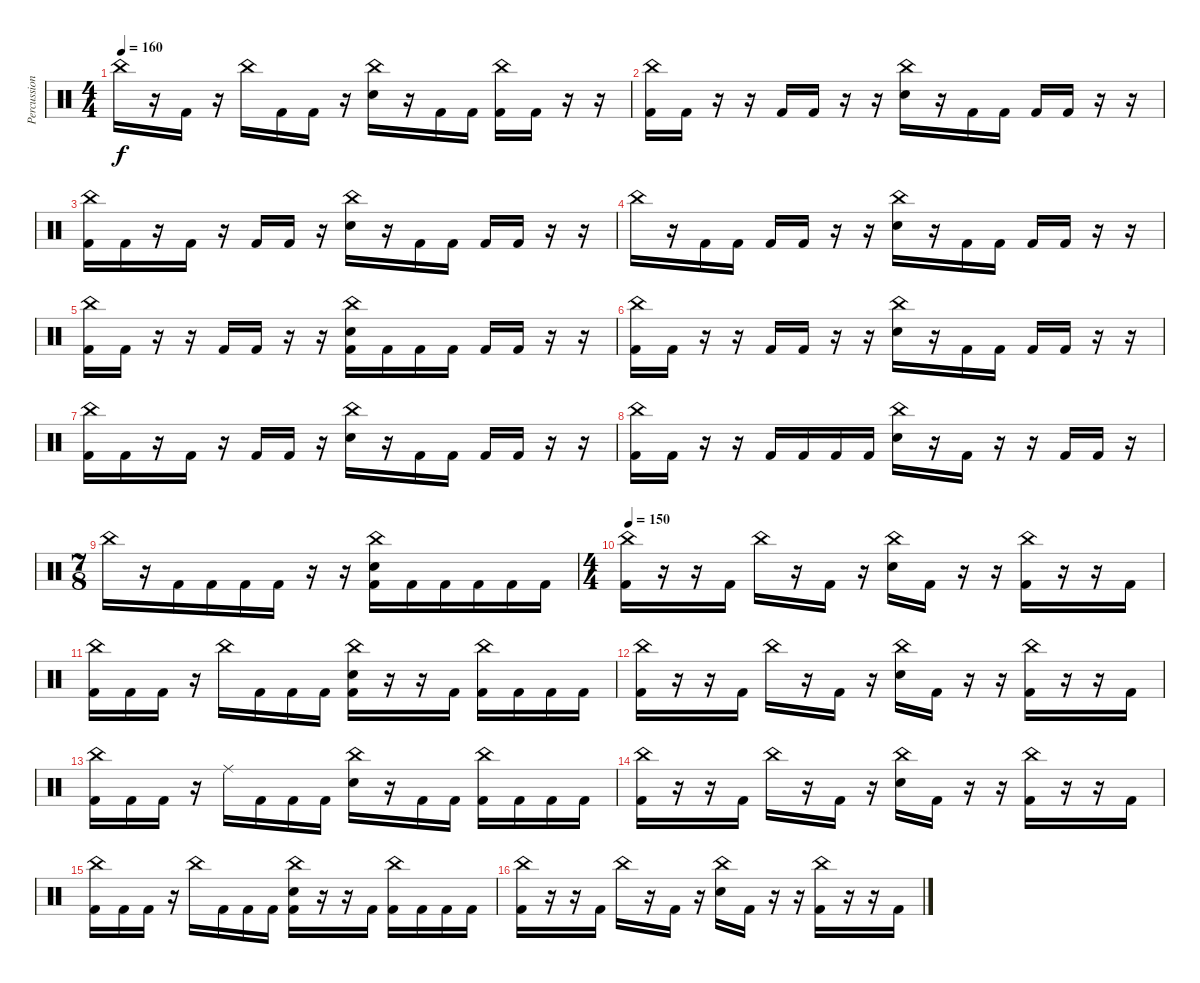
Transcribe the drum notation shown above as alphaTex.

\track ("Percussion" "Percussion") {instrument percussion}
\staff {score}
\articulation defaults
\ts (4 4)
\tempo 160
\clef neutral
\ks c "China (hit)".16{dy f}
r.16 "Kick (hit) 2".16 r.16 "China (hit)".16 "Kick (hit) 2".16 "Kick (hit) 2".16 r.16 ("China (hit)" "Snare (hit) 2").16 r.16 "Kick (hit) 2".16 "Kick (hit) 2".16 ("China (hit)" "Kick (hit) 2").16 "Kick (hit) 2".16 r.16 r.16 |
("China (hit)" "Kick (hit) 2").16 "Kick (hit) 2".16 r.16 r.16 "Kick (hit) 2".16 "Kick (hit) 2".16 r.16 r.16 ("China (hit)" "Snare (hit) 2").16 r.16 "Kick (hit) 2".16 "Kick (hit) 2".16 "Kick (hit) 2".16 "Kick (hit) 2".16 r.16 r.16 |
("China (hit)" "Kick (hit) 2").16 "Kick (hit) 2".16 r.16 "Kick (hit) 2".16 r.16 "Kick (hit) 2".16 "Kick (hit) 2".16 r.16 ("China (hit)" "Snare (hit) 2").16 r.16 "Kick (hit) 2".16 "Kick (hit) 2".16 "Kick (hit) 2".16 "Kick (hit) 2".16 r.16 r.16 |
"China (hit)".16 r.16 "Kick (hit) 2".16 "Kick (hit) 2".16 "Kick (hit) 2".16 "Kick (hit) 2".16 r.16 r.16 ("China (hit)" "Snare (hit) 2").16 r.16 "Kick (hit) 2".16 "Kick (hit) 2".16 "Kick (hit) 2".16 "Kick (hit) 2".16 r.16 r.16 |
("China (hit)" "Kick (hit) 2").16 "Kick (hit) 2".16 r.16 r.16 "Kick (hit) 2".16 "Kick (hit) 2".16 r.16 r.16 ("China (hit)" "Snare (hit) 2" "Kick (hit) 2").16 "Kick (hit) 2".16 "Kick (hit) 2".16 "Kick (hit) 2".16 "Kick (hit) 2".16 "Kick (hit) 2".16 r.16 r.16 |
("China (hit)" "Kick (hit) 2").16 "Kick (hit) 2".16 r.16 r.16 "Kick (hit) 2".16 "Kick (hit) 2".16 r.16 r.16 ("China (hit)" "Snare (hit) 2").16 r.16 "Kick (hit) 2".16 "Kick (hit) 2".16 "Kick (hit) 2".16 "Kick (hit) 2".16 r.16 r.16 |
("China (hit)" "Kick (hit) 2").16 "Kick (hit) 2".16 r.16 "Kick (hit) 2".16 r.16 "Kick (hit) 2".16 "Kick (hit) 2".16 r.16 ("China (hit)" "Snare (hit) 2").16 r.16 "Kick (hit) 2".16 "Kick (hit) 2".16 "Kick (hit) 2".16 "Kick (hit) 2".16 r.16 r.16 |
("China (hit)" "Kick (hit) 2").16 "Kick (hit) 2".16 r.16 r.16 "Kick (hit) 2".16 "Kick (hit) 2".16 "Kick (hit) 2".16 "Kick (hit) 2".16 ("China (hit)" "Snare (hit) 2").16 r.16 "Kick (hit) 2".16 r.16 r.16 "Kick (hit) 2".16 "Kick (hit) 2".16 r.16 |
\ts (7 8)
"China (hit)".16 r.16 "Kick (hit) 2".16 "Kick (hit) 2".16 "Kick (hit) 2".16 "Kick (hit) 2".16 r.16 r.16 ("China (hit)" "Snare (hit) 2" "Kick (hit) 2").16 "Kick (hit) 2".16 "Kick (hit) 2".16 "Kick (hit) 2".16 "Kick (hit) 2".16 "Kick (hit) 2".16 |
\ts (4 4)
\tempo 150
("China (hit)" "Kick (hit) 2").16 r.16 r.16 "Kick (hit) 2".16 "China (hit)".16 r.16 "Kick (hit) 2".16 r.16 ("China (hit)" "Snare (hit) 2").16 "Kick (hit) 2".16 r.16 r.16 ("China (hit)" "Kick (hit) 2").16 r.16 r.16 "Kick (hit) 2".16 |
("China (hit)" "Kick (hit) 2").16 "Kick (hit) 2".16 "Kick (hit) 2".16 r.16 "China (hit)".16 "Kick (hit) 2".16 "Kick (hit) 2".16 "Kick (hit) 2".16 ("China (hit)" "Snare (hit) 2" "Kick (hit) 2").16 r.16 r.16 "Kick (hit) 2".16 ("China (hit)" "Kick (hit) 2").16 "Kick (hit) 2".16 "Kick (hit) 2".16 "Kick (hit) 2".16 |
("China (hit)" "Kick (hit) 2").16 r.16 r.16 "Kick (hit) 2".16 "China (hit)".16 r.16 "Kick (hit) 2".16 r.16 ("China (hit)" "Snare (hit) 2").16 "Kick (hit) 2".16 r.16 r.16 ("China (hit)" "Kick (hit) 2").16 r.16 r.16 "Kick (hit) 2".16 |
("China (hit)" "Kick (hit) 2").16 "Kick (hit) 2".16 "Kick (hit) 2".16 r.16 "Ride (middle)".16 "Kick (hit) 2".16 "Kick (hit) 2".16 "Kick (hit) 2".16 ("China (hit)" "Snare (hit) 2").16 r.16 "Kick (hit) 2".16 "Kick (hit) 2".16 ("China (hit)" "Kick (hit) 2").16 "Kick (hit) 2".16 "Kick (hit) 2".16 "Kick (hit) 2".16 |
("China (hit)" "Kick (hit) 2").16 r.16 r.16 "Kick (hit) 2".16 "China (hit)".16 r.16 "Kick (hit) 2".16 r.16 ("China (hit)" "Snare (hit) 2").16 "Kick (hit) 2".16 r.16 r.16 ("China (hit)" "Kick (hit) 2").16 r.16 r.16 "Kick (hit) 2".16 |
("China (hit)" "Kick (hit) 2").16 "Kick (hit) 2".16 "Kick (hit) 2".16 r.16 "China (hit)".16 "Kick (hit) 2".16 "Kick (hit) 2".16 "Kick (hit) 2".16 ("China (hit)" "Snare (hit) 2" "Kick (hit) 2").16 r.16 r.16 "Kick (hit) 2".16 ("China (hit)" "Kick (hit) 2").16 "Kick (hit) 2".16 "Kick (hit) 2".16 "Kick (hit) 2".16 |
("China (hit)" "Kick (hit) 2").16 r.16 r.16 "Kick (hit) 2".16 "China (hit)".16 r.16 "Kick (hit) 2".16 r.16 ("China (hit)" "Snare (hit) 2").16 "Kick (hit) 2".16 r.16 r.16 ("China (hit)" "Kick (hit) 2").16 r.16 r.16 "Kick (hit) 2".16
